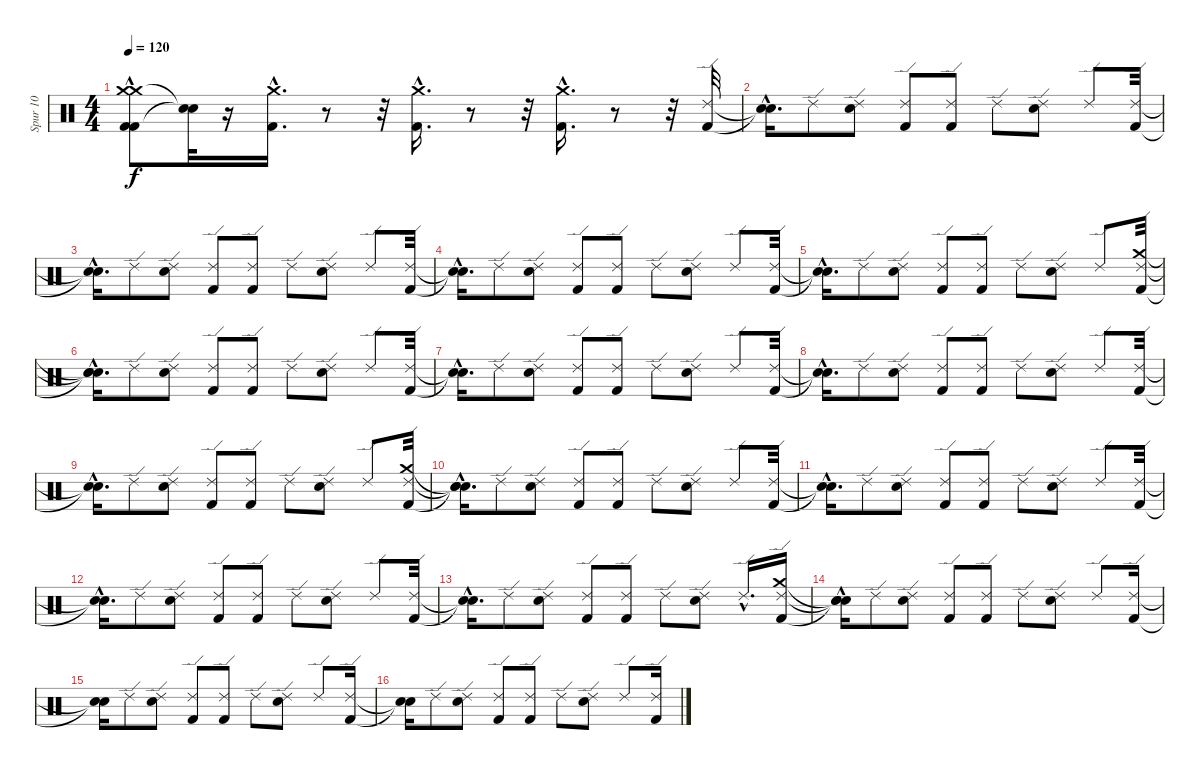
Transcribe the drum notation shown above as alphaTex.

\track ("Spur 10" "Spur 10") {instrument percussion}
\staff {score}
\articulation defaults
\ts (4 4)
\tempo 120
\clef neutral
\ks c
("Kick (hit) 2"{hac} "Crash medium (hit)" "Kick (hit) 2"{hac} "Crash medium (hit)").8{dy f} ("Snare (hit)"{t} "Snare (hit)"{t}).32 r.16 ("Kick (hit) 2"{hac} "Crash medium (hit)"{hac}).16{d} r.8 r.32 ("Kick (hit) 2"{hac} "Crash medium (hit)"{hac}).16{d} r.8 r.32 ("Kick (hit) 2"{hac} "Crash medium (hit)"{hac}).16{d} r.8 r.32 ("Kick (hit) 2" "Ride (edge) 2").32 |
("Snare (hit)"{hac t} "Snare (hit)"{hac t}).16{d} "Ride (edge) 2".8 ("Electric Snare (hit)" "Ride (edge) 2").8 ("Kick (hit) 2" "Ride (edge) 2").8 ("Kick (hit) 2" "Ride (edge) 2").8 "Ride (edge) 2".8 ("Electric Snare (hit)" "Ride (edge) 2").8 "Ride (edge) 2".8 ("Kick (hit) 2" "Ride (edge) 2").32 |
("Snare (hit)"{hac t} "Snare (hit)"{hac t}).16{d} "Ride (edge) 2".8 ("Electric Snare (hit)" "Ride (edge) 2").8 ("Kick (hit) 2" "Ride (edge) 2").8 ("Kick (hit) 2" "Ride (edge) 2").8 "Ride (edge) 2".8 ("Electric Snare (hit)" "Ride (edge) 2").8 "Ride (edge) 2".8 ("Kick (hit) 2" "Ride (edge) 2").32 |
("Snare (hit)"{hac t} "Snare (hit)"{hac t}).16{d} "Ride (edge) 2".8 ("Electric Snare (hit)" "Ride (edge) 2").8 ("Kick (hit) 2" "Ride (edge) 2").8 ("Kick (hit) 2" "Ride (edge) 2").8 "Ride (edge) 2".8 ("Electric Snare (hit)" "Ride (edge) 2").8 "Ride (edge) 2".8 ("Kick (hit) 2" "Ride (edge) 2").32 |
("Snare (hit)"{hac t} "Snare (hit)"{hac t}).16{d} "Ride (edge) 2".8 ("Electric Snare (hit)" "Ride (edge) 2").8 ("Kick (hit) 2" "Ride (edge) 2").8 ("Kick (hit) 2" "Ride (edge) 2").8 "Ride (edge) 2".8 ("Electric Snare (hit)" "Ride (edge) 2").8 "Ride (edge) 2".8 ("Kick (hit) 2" "Ride (edge) 2" "Crash medium (hit)").32 |
("Snare (hit)"{hac t} "Snare (hit)"{hac t} "Snare (hit)"{hac t}).16{d} "Ride (edge) 2".8 ("Electric Snare (hit)" "Ride (edge) 2").8 ("Kick (hit) 2" "Ride (edge) 2").8 ("Kick (hit) 2" "Ride (edge) 2").8 "Ride (edge) 2".8 ("Electric Snare (hit)" "Ride (edge) 2").8 "Ride (edge) 2".8 ("Kick (hit) 2" "Ride (edge) 2").32 |
("Snare (hit)"{hac t} "Snare (hit)"{hac t}).16{d} "Ride (edge) 2".8 ("Electric Snare (hit)" "Ride (edge) 2").8 ("Kick (hit) 2" "Ride (edge) 2").8 ("Kick (hit) 2" "Ride (edge) 2").8 "Ride (edge) 2".8 ("Electric Snare (hit)" "Ride (edge) 2").8 "Ride (edge) 2".8 ("Kick (hit) 2" "Ride (edge) 2").32 |
("Snare (hit)"{hac t} "Snare (hit)"{hac t}).16{d} "Ride (edge) 2".8 ("Electric Snare (hit)" "Ride (edge) 2").8 ("Kick (hit) 2" "Ride (edge) 2").8 ("Kick (hit) 2" "Ride (edge) 2").8 "Ride (edge) 2".8 ("Electric Snare (hit)" "Ride (edge) 2").8 "Ride (edge) 2".8 ("Kick (hit) 2" "Ride (edge) 2").32 |
("Snare (hit)"{hac t} "Snare (hit)"{hac t}).16{d} "Ride (edge) 2".8 ("Electric Snare (hit)" "Ride (edge) 2").8 ("Kick (hit) 2" "Ride (edge) 2").8 ("Kick (hit) 2" "Ride (edge) 2").8 "Ride (edge) 2".8 ("Electric Snare (hit)" "Ride (edge) 2").8 "Ride (edge) 2".8 ("Kick (hit) 2" "Ride (edge) 2" "Crash medium (hit)").32 |
("Snare (hit)"{hac t} "Snare (hit)"{hac t} "Snare (hit)"{hac t}).16{d} "Ride (edge) 2".8 ("Electric Snare (hit)" "Ride (edge) 2").8 ("Kick (hit) 2" "Ride (edge) 2").8 ("Kick (hit) 2" "Ride (edge) 2").8 "Ride (edge) 2".8 ("Electric Snare (hit)" "Ride (edge) 2").8 "Ride (edge) 2".8 ("Kick (hit) 2" "Ride (edge) 2").32 |
("Snare (hit)"{hac t} "Snare (hit)"{hac t}).16{d} "Ride (edge) 2".8 ("Electric Snare (hit)" "Ride (edge) 2").8 ("Kick (hit) 2" "Ride (edge) 2").8 ("Kick (hit) 2" "Ride (edge) 2").8 "Ride (edge) 2".8 ("Electric Snare (hit)" "Ride (edge) 2").8 "Ride (edge) 2".8 ("Kick (hit) 2" "Ride (edge) 2").32 |
("Snare (hit)"{hac t} "Snare (hit)"{hac t}).16{d} "Ride (edge) 2".8 ("Electric Snare (hit)" "Ride (edge) 2").8 ("Kick (hit) 2" "Ride (edge) 2").8 ("Kick (hit) 2" "Ride (edge) 2").8 "Ride (edge) 2".8 ("Electric Snare (hit)" "Ride (edge) 2").8 "Ride (edge) 2".8 ("Kick (hit) 2" "Ride (edge) 2").32 |
("Snare (hit)"{hac t} "Snare (hit)"{hac t}).16{d} "Ride (edge) 2".8 ("Electric Snare (hit)" "Ride (edge) 2").8 ("Kick (hit) 2" "Ride (edge) 2").8 ("Kick (hit) 2" "Ride (edge) 2").8 "Ride (edge) 2".8 ("Electric Snare (hit)" "Ride (edge) 2").8 "Ride (edge) 2"{hac}.16{d} ("Kick (hit) 2" "Ride (edge) 2" "Crash medium (hit)").16 |
("Snare (hit)"{t} "Snare (hit)"{t} "Snare (hit)"{hac t}).16 "Ride (edge) 2".8 ("Electric Snare (hit)" "Ride (edge) 2").8 ("Kick (hit) 2" "Ride (edge) 2").8 ("Kick (hit) 2" "Ride (edge) 2").8 "Ride (edge) 2".8 ("Electric Snare (hit)" "Ride (edge) 2").8 "Ride (edge) 2".8 ("Kick (hit) 2" "Ride (edge) 2").16 |
("Snare (hit)"{t} "Snare (hit)"{t}).16 "Ride (edge) 2".8 ("Electric Snare (hit)" "Ride (edge) 2").8 ("Kick (hit) 2" "Ride (edge) 2").8 ("Kick (hit) 2" "Ride (edge) 2").8 "Ride (edge) 2".8 ("Electric Snare (hit)" "Ride (edge) 2").8 "Ride (edge) 2".8 ("Kick (hit) 2" "Ride (edge) 2").16 |
("Snare (hit)"{t} "Snare (hit)"{t}).16 "Ride (edge) 2".8 ("Electric Snare (hit)" "Ride (edge) 2").8 ("Kick (hit) 2" "Ride (edge) 2").8 ("Kick (hit) 2" "Ride (edge) 2").8 "Ride (edge) 2".8 ("Electric Snare (hit)" "Ride (edge) 2").8 "Ride (edge) 2".8 ("Kick (hit) 2" "Ride (edge) 2").16
